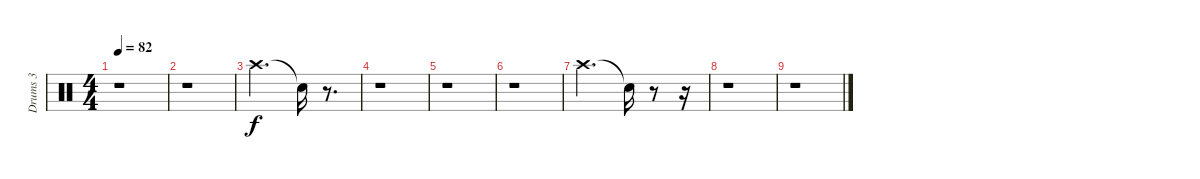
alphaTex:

\track ("Drums 3" "Drums 3") {instrument percussion}
\staff {score}
\articulation defaults
\ts (4 4)
\tempo 82
\clef neutral
\ks c
r.1{dy f} |
r.1 |
"Crash high (hit)".2{d} "Snare (hit)"{t}.16 r.8{d} |
r.1 |
r.1 |
r.1 |
"Crash high (hit)".2{d} "Snare (hit)"{t}.16 r.8 r.16 |
r.1 |
r.1
